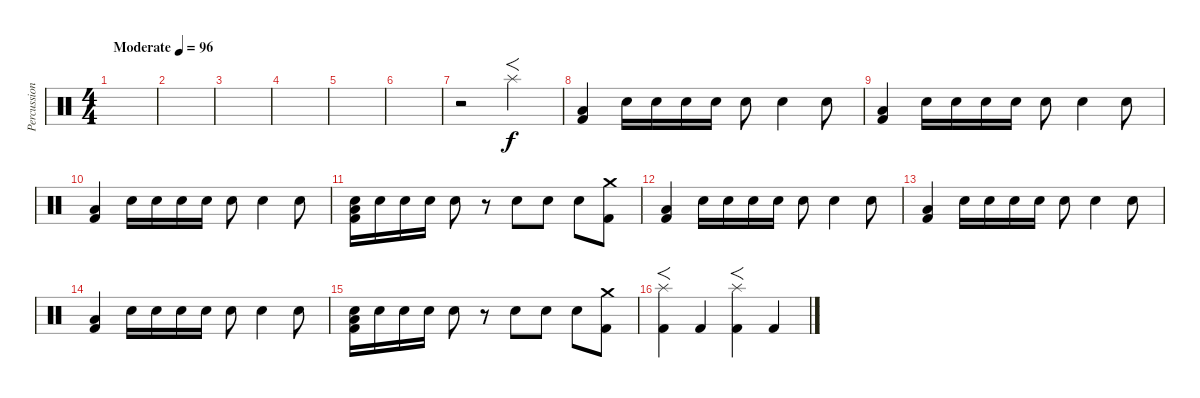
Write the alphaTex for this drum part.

\track ("Percussion" "Percussion") {instrument percussion bank 255}
\staff {score}
\articulation defaults
\ts (4 4)
\tempo (96 "Moderate")
\clef neutral
\ks c
|
|
|
|
|
|
r.2 "Splash (hit)".2{f} |
("Low Floor Tom (hit)" "Kick (hit) 2").4 "Electric Snare (hit)".16 "Electric Snare (hit)".16 "Electric Snare (hit)".16 "Electric Snare (hit)".16 "Electric Snare (hit)".8 "Electric Snare (hit)".4 "Electric Snare (hit)".8 |
("Low Floor Tom (hit)" "Kick (hit) 2").4 "Electric Snare (hit)".16 "Electric Snare (hit)".16 "Electric Snare (hit)".16 "Electric Snare (hit)".16 "Electric Snare (hit)".8 "Electric Snare (hit)".4 "Electric Snare (hit)".8 |
("Low Floor Tom (hit)" "Kick (hit) 2").4 "Electric Snare (hit)".16 "Electric Snare (hit)".16 "Electric Snare (hit)".16 "Electric Snare (hit)".16 "Electric Snare (hit)".8 "Electric Snare (hit)".4 "Electric Snare (hit)".8 |
("Electric Snare (hit)" "Low Floor Tom (hit)" "Kick (hit) 2").16 "Electric Snare (hit)".16 "Electric Snare (hit)".16 "Electric Snare (hit)".16 "Electric Snare (hit)".8 r.8 "Electric Snare (hit)".8 "Electric Snare (hit)".8 "Electric Snare (hit)".8 ("Crash medium (hit)" "Kick (hit) 2").8 |
("Low Floor Tom (hit)" "Kick (hit) 2").4 "Electric Snare (hit)".16 "Electric Snare (hit)".16 "Electric Snare (hit)".16 "Electric Snare (hit)".16 "Electric Snare (hit)".8 "Electric Snare (hit)".4 "Electric Snare (hit)".8 |
("Low Floor Tom (hit)" "Kick (hit) 2").4 "Electric Snare (hit)".16 "Electric Snare (hit)".16 "Electric Snare (hit)".16 "Electric Snare (hit)".16 "Electric Snare (hit)".8 "Electric Snare (hit)".4 "Electric Snare (hit)".8 |
("Low Floor Tom (hit)" "Kick (hit) 2").4 "Electric Snare (hit)".16 "Electric Snare (hit)".16 "Electric Snare (hit)".16 "Electric Snare (hit)".16 "Electric Snare (hit)".8 "Electric Snare (hit)".4 "Electric Snare (hit)".8 |
("Electric Snare (hit)" "Low Floor Tom (hit)" "Kick (hit) 2").16 "Electric Snare (hit)".16 "Electric Snare (hit)".16 "Electric Snare (hit)".16 "Electric Snare (hit)".8 r.8 "Electric Snare (hit)".8 "Electric Snare (hit)".8 "Electric Snare (hit)".8 ("Crash medium (hit)" "Kick (hit) 2").8 |
("Splash (hit)" "Kick (hit) 2").4{f} "Kick (hit) 2".4 ("Splash (hit)" "Kick (hit) 2").4{f} "Kick (hit) 2".4
